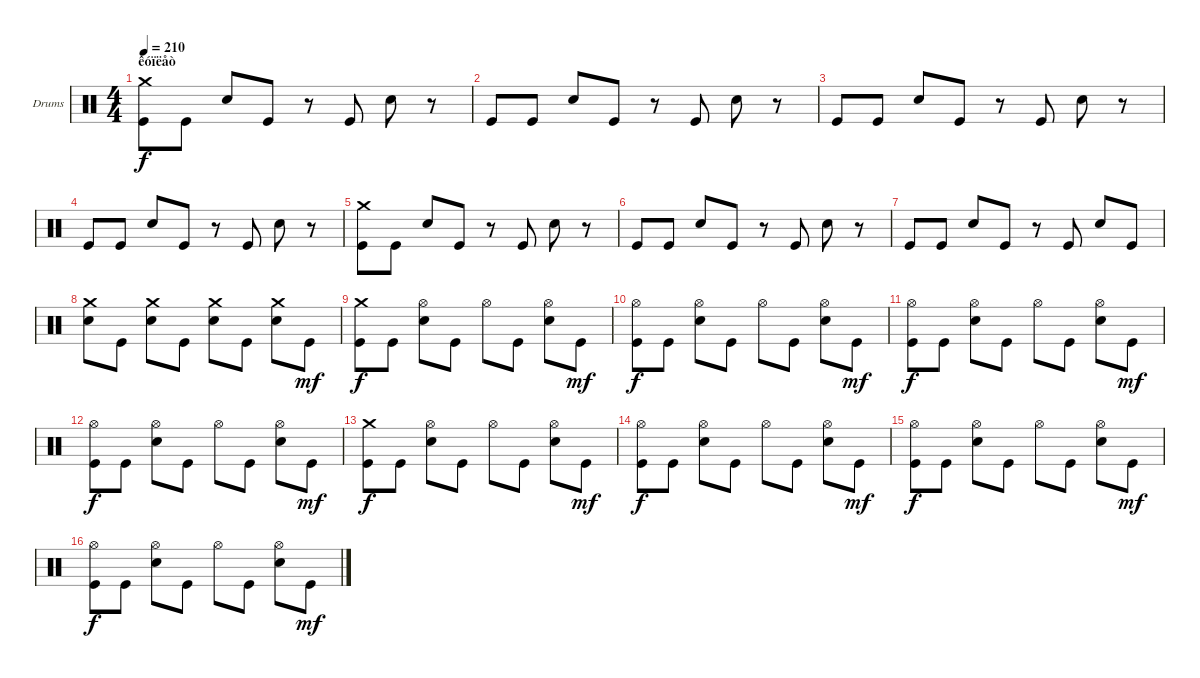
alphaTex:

\bracketExtendMode groupsimilarinstruments
\firstSystemTrackNameOrientation horizontal
\otherSystemsTrackNameOrientation horizontal
\track ("Drumkit" "Drums") {instrument percussion}
\staff {score}
\articulation defaults
\ts (4 4)
\section ("" "êóïëåò")
\tempo 210
\clef neutral
\ks c
("Crash medium (hit)" "Kick (hit)").8{dy f} "Kick (hit)".8 "Snare (hit) 2".8 "Kick (hit)".8 r.8 "Kick (hit)".8 "Snare (hit) 2".8 r.8 |
"Kick (hit)".8 "Kick (hit)".8 "Snare (hit) 2".8 "Kick (hit)".8 r.8 "Kick (hit)".8 "Snare (hit) 2".8 r.8 |
"Kick (hit)".8 "Kick (hit)".8 "Snare (hit) 2".8 "Kick (hit)".8 r.8 "Kick (hit)".8 "Snare (hit) 2".8 r.8 |
"Kick (hit)".8 "Kick (hit)".8 "Snare (hit) 2".8 "Kick (hit)".8 r.8 "Kick (hit)".8 "Snare (hit) 2".8 r.8 |
("Crash medium (hit)" "Kick (hit)").8 "Kick (hit)".8 "Snare (hit) 2".8 "Kick (hit)".8 r.8 "Kick (hit)".8 "Snare (hit) 2".8 r.8 |
"Kick (hit)".8 "Kick (hit)".8 "Snare (hit) 2".8 "Kick (hit)".8 r.8 "Kick (hit)".8 "Snare (hit) 2".8 r.8 |
"Kick (hit)".8 "Kick (hit)".8 "Snare (hit) 2".8 "Kick (hit)".8 r.8 "Kick (hit)".8 "Snare (hit) 2".8 "Kick (hit)".8 |
("Crash medium (hit)" "Snare (hit) 2").8 "Kick (hit)".8 ("Crash medium (hit)" "Snare (hit) 2").8 "Kick (hit)".8 ("Crash medium (hit)" "Snare (hit) 2").8 "Kick (hit)".8 ("Crash medium (hit)" "Snare (hit) 2").8 "Kick (hit)".8{dy mf} |
("Crash medium (hit)" "Kick (hit)").8{dy f} "Kick (hit)".8 ("Hi-Hat (open)" "Snare (hit) 2").8 "Kick (hit)".8 "Hi-Hat (open)".8 "Kick (hit)".8 ("Hi-Hat (open)" "Snare (hit) 2").8 "Kick (hit)".8{dy mf} |
("Hi-Hat (open)" "Kick (hit)").8{dy f} "Kick (hit)".8 ("Hi-Hat (open)" "Snare (hit) 2").8 "Kick (hit)".8 "Hi-Hat (open)".8 "Kick (hit)".8 ("Hi-Hat (open)" "Snare (hit) 2").8 "Kick (hit)".8{dy mf} |
("Hi-Hat (open)" "Kick (hit)").8{dy f} "Kick (hit)".8 ("Hi-Hat (open)" "Snare (hit) 2").8 "Kick (hit)".8 "Hi-Hat (open)".8 "Kick (hit)".8 ("Hi-Hat (open)" "Snare (hit) 2").8 "Kick (hit)".8{dy mf} |
("Hi-Hat (open)" "Kick (hit)").8{dy f} "Kick (hit)".8 ("Hi-Hat (open)" "Snare (hit) 2").8 "Kick (hit)".8 "Hi-Hat (open)".8 "Kick (hit)".8 ("Hi-Hat (open)" "Snare (hit) 2").8 "Kick (hit)".8{dy mf} |
("Crash medium (hit)" "Kick (hit)").8{dy f} "Kick (hit)".8 ("Hi-Hat (open)" "Snare (hit) 2").8 "Kick (hit)".8 "Hi-Hat (open)".8 "Kick (hit)".8 ("Hi-Hat (open)" "Snare (hit) 2").8 "Kick (hit)".8{dy mf} |
("Hi-Hat (open)" "Kick (hit)").8{dy f} "Kick (hit)".8 ("Hi-Hat (open)" "Snare (hit) 2").8 "Kick (hit)".8 "Hi-Hat (open)".8 "Kick (hit)".8 ("Hi-Hat (open)" "Snare (hit) 2").8 "Kick (hit)".8{dy mf} |
("Hi-Hat (open)" "Kick (hit)").8{dy f} "Kick (hit)".8 ("Hi-Hat (open)" "Snare (hit) 2").8 "Kick (hit)".8 "Hi-Hat (open)".8 "Kick (hit)".8 ("Hi-Hat (open)" "Snare (hit) 2").8 "Kick (hit)".8{dy mf} |
("Hi-Hat (open)" "Kick (hit)").8{dy f} "Kick (hit)".8 ("Hi-Hat (open)" "Snare (hit) 2").8 "Kick (hit)".8 "Hi-Hat (open)".8 "Kick (hit)".8 ("Hi-Hat (open)" "Snare (hit) 2").8 "Kick (hit)".8{dy mf}
